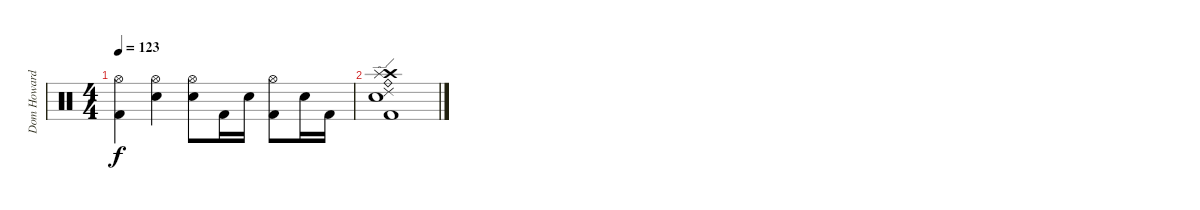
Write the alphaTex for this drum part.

\track ("Dom Howard" "Dom Howard") {instrument percussion}
\staff {score}
\articulation defaults
\ts (4 4)
\tempo 123
\clef neutral
\ks c
("Hi-Hat (open)" "Kick (hit) 2").4{dy f} ("Hi-Hat (open)" "Snare (hit) 2").4 ("Hi-Hat (open)" "Snare (hit) 2").8 "Kick (hit) 2".16 "Snare (hit) 2".16 ("Hi-Hat (open)" "Kick (hit) 2").8 "Snare (hit) 2".16 "Kick (hit) 2".16 |
("Crash high (hit)" "Ride (edge) 2" "Ride (bell)" "Splash (hit)" "Snare (hit) 2" "Kick (hit) 2").1
